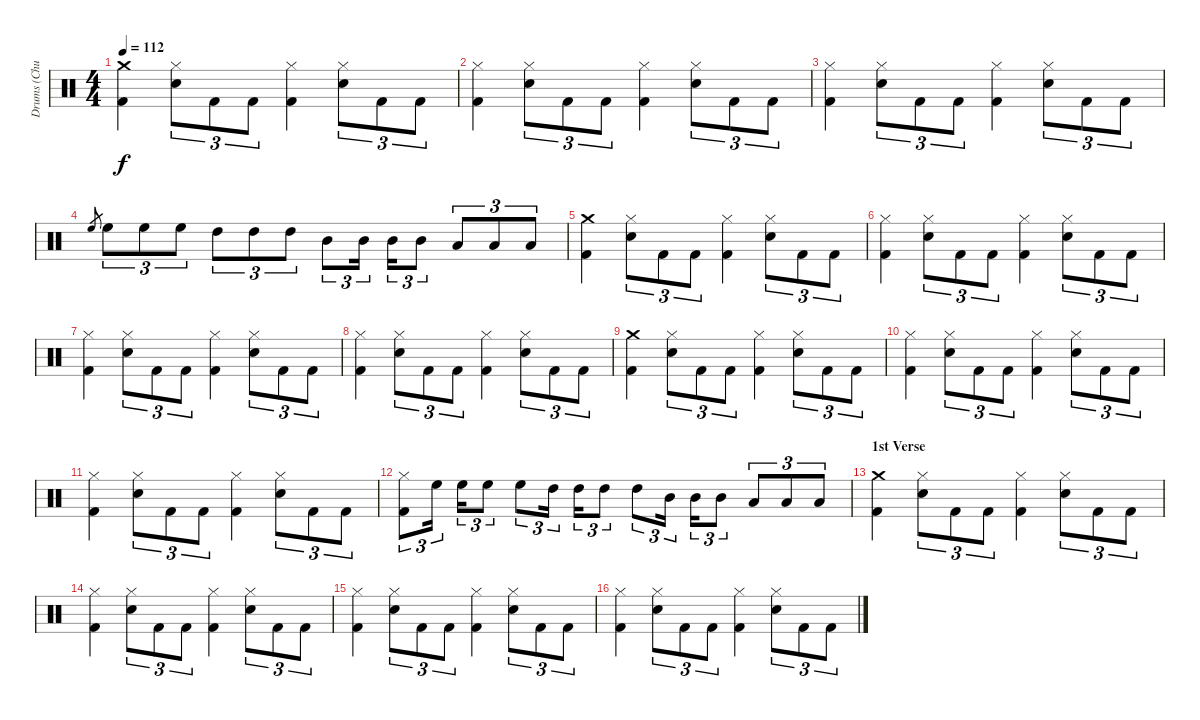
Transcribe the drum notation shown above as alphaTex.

\track ("Drums (Chuck Behler)" "Drums (Chu") {instrument percussion}
\staff {score}
\articulation defaults
\ts (4 4)
\tempo 112
\clef neutral
\ks c
("Crash medium (hit)" "Kick (hit) 2").4{dy f} ("Hi-Hat (closed)" "Snare (hit) 2").8{tu (3 2)} "Kick (hit) 2".8{tu (3 2)} "Kick (hit) 2".8{tu (3 2)} ("Hi-Hat (closed)" "Kick (hit) 2").4 ("Hi-Hat (closed)" "Snare (hit) 2").8{tu (3 2)} "Kick (hit) 2".8{tu (3 2)} "Kick (hit) 2".8{tu (3 2)} |
("Hi-Hat (closed)" "Kick (hit) 2").4 ("Hi-Hat (closed)" "Snare (hit) 2").8{tu (3 2)} "Kick (hit) 2".8{tu (3 2)} "Kick (hit) 2".8{tu (3 2)} ("Hi-Hat (closed)" "Kick (hit) 2").4 ("Hi-Hat (closed)" "Snare (hit) 2").8{tu (3 2)} "Kick (hit) 2".8{tu (3 2)} "Kick (hit) 2".8{tu (3 2)} |
("Hi-Hat (closed)" "Kick (hit) 2").4 ("Hi-Hat (closed)" "Snare (hit) 2").8{tu (3 2)} "Kick (hit) 2".8{tu (3 2)} "Kick (hit) 2".8{tu (3 2)} ("Hi-Hat (closed)" "Kick (hit) 2").4 ("Hi-Hat (closed)" "Snare (hit) 2").8{tu (3 2)} "Kick (hit) 2".8{tu (3 2)} "Kick (hit) 2".8{tu (3 2)} |
"High Floor Tom (hit)".8{gr} "High Floor Tom (hit)".8{tu (3 2)} "High Floor Tom (hit)".8{tu (3 2)} "High Floor Tom (hit)".8{tu (3 2)} "High Tom (hit)".8{tu (3 2)} "High Tom (hit)".8{tu (3 2)} "High Tom (hit)".8{tu (3 2)} "Mid Tom (hit)".8{tu (3 2)} "Mid Tom (hit)".16{tu (3 2)} "Mid Tom (hit)".16{tu (3 2)} "Mid Tom (hit)".8{tu (3 2)} "Low Tom (hit)".8{tu (3 2)} "Low Tom (hit)".8{tu (3 2)} "Low Tom (hit)".8{tu (3 2)} |
("Crash medium (hit)" "Kick (hit) 2").4 ("Hi-Hat (closed)" "Snare (hit) 2").8{tu (3 2)} "Kick (hit) 2".8{tu (3 2)} "Kick (hit) 2".8{tu (3 2)} ("Hi-Hat (closed)" "Kick (hit) 2").4 ("Hi-Hat (closed)" "Snare (hit) 2").8{tu (3 2)} "Kick (hit) 2".8{tu (3 2)} "Kick (hit) 2".8{tu (3 2)} |
("Hi-Hat (closed)" "Kick (hit) 2").4 ("Hi-Hat (closed)" "Snare (hit) 2").8{tu (3 2)} "Kick (hit) 2".8{tu (3 2)} "Kick (hit) 2".8{tu (3 2)} ("Hi-Hat (closed)" "Kick (hit) 2").4 ("Hi-Hat (closed)" "Snare (hit) 2").8{tu (3 2)} "Kick (hit) 2".8{tu (3 2)} "Kick (hit) 2".8{tu (3 2)} |
("Hi-Hat (closed)" "Kick (hit) 2").4 ("Hi-Hat (closed)" "Snare (hit) 2").8{tu (3 2)} "Kick (hit) 2".8{tu (3 2)} "Kick (hit) 2".8{tu (3 2)} ("Hi-Hat (closed)" "Kick (hit) 2").4 ("Hi-Hat (closed)" "Snare (hit) 2").8{tu (3 2)} "Kick (hit) 2".8{tu (3 2)} "Kick (hit) 2".8{tu (3 2)} |
("Hi-Hat (closed)" "Kick (hit) 2").4 ("Hi-Hat (closed)" "Snare (hit) 2").8{tu (3 2)} "Kick (hit) 2".8{tu (3 2)} "Kick (hit) 2".8{tu (3 2)} ("Hi-Hat (closed)" "Kick (hit) 2").4 ("Hi-Hat (closed)" "Snare (hit) 2").8{tu (3 2)} "Kick (hit) 2".8{tu (3 2)} "Kick (hit) 2".8{tu (3 2)} |
("Crash medium (hit)" "Kick (hit) 2").4 ("Hi-Hat (closed)" "Snare (hit) 2").8{tu (3 2)} "Kick (hit) 2".8{tu (3 2)} "Kick (hit) 2".8{tu (3 2)} ("Hi-Hat (closed)" "Kick (hit) 2").4 ("Hi-Hat (closed)" "Snare (hit) 2").8{tu (3 2)} "Kick (hit) 2".8{tu (3 2)} "Kick (hit) 2".8{tu (3 2)} |
("Hi-Hat (closed)" "Kick (hit) 2").4 ("Hi-Hat (closed)" "Snare (hit) 2").8{tu (3 2)} "Kick (hit) 2".8{tu (3 2)} "Kick (hit) 2".8{tu (3 2)} ("Hi-Hat (closed)" "Kick (hit) 2").4 ("Hi-Hat (closed)" "Snare (hit) 2").8{tu (3 2)} "Kick (hit) 2".8{tu (3 2)} "Kick (hit) 2".8{tu (3 2)} |
("Hi-Hat (closed)" "Kick (hit) 2").4 ("Hi-Hat (closed)" "Snare (hit) 2").8{tu (3 2)} "Kick (hit) 2".8{tu (3 2)} "Kick (hit) 2".8{tu (3 2)} ("Hi-Hat (closed)" "Kick (hit) 2").4 ("Hi-Hat (closed)" "Snare (hit) 2").8{tu (3 2)} "Kick (hit) 2".8{tu (3 2)} "Kick (hit) 2".8{tu (3 2)} |
("Hi-Hat (closed)" "Kick (hit) 2").8{tu (3 2)} "High Floor Tom (hit)".16{tu (3 2)} "High Floor Tom (hit)".16{tu (3 2)} "High Floor Tom (hit)".8{tu (3 2)} "High Floor Tom (hit)".8{tu (3 2)} "High Tom (hit)".16{tu (3 2)} "High Tom (hit)".16{tu (3 2)} "High Tom (hit)".8{tu (3 2)} "High Tom (hit)".8{tu (3 2)} "Mid Tom (hit)".16{tu (3 2)} "Mid Tom (hit)".16{tu (3 2)} "Mid Tom (hit)".8{tu (3 2)} "Low Tom (hit)".8{tu (3 2)} "Low Tom (hit)".8{tu (3 2)} "Low Tom (hit)".8{tu (3 2)} |
\section ("" "1st Verse")
("Crash medium (hit)" "Kick (hit) 2").4 ("Hi-Hat (closed)" "Snare (hit) 2").8{tu (3 2)} "Kick (hit) 2".8{tu (3 2)} "Kick (hit) 2".8{tu (3 2)} ("Hi-Hat (closed)" "Kick (hit) 2").4 ("Hi-Hat (closed)" "Snare (hit) 2").8{tu (3 2)} "Kick (hit) 2".8{tu (3 2)} "Kick (hit) 2".8{tu (3 2)} |
("Hi-Hat (closed)" "Kick (hit) 2").4 ("Hi-Hat (closed)" "Snare (hit) 2").8{tu (3 2)} "Kick (hit) 2".8{tu (3 2)} "Kick (hit) 2".8{tu (3 2)} ("Hi-Hat (closed)" "Kick (hit) 2").4 ("Hi-Hat (closed)" "Snare (hit) 2").8{tu (3 2)} "Kick (hit) 2".8{tu (3 2)} "Kick (hit) 2".8{tu (3 2)} |
("Hi-Hat (closed)" "Kick (hit) 2").4 ("Hi-Hat (closed)" "Snare (hit) 2").8{tu (3 2)} "Kick (hit) 2".8{tu (3 2)} "Kick (hit) 2".8{tu (3 2)} ("Hi-Hat (closed)" "Kick (hit) 2").4 ("Hi-Hat (closed)" "Snare (hit) 2").8{tu (3 2)} "Kick (hit) 2".8{tu (3 2)} "Kick (hit) 2".8{tu (3 2)} |
("Hi-Hat (closed)" "Kick (hit) 2").4 ("Hi-Hat (closed)" "Snare (hit) 2").8{tu (3 2)} "Kick (hit) 2".8{tu (3 2)} "Kick (hit) 2".8{tu (3 2)} ("Hi-Hat (closed)" "Kick (hit) 2").4 ("Hi-Hat (closed)" "Snare (hit) 2").8{tu (3 2)} "Kick (hit) 2".8{tu (3 2)} "Kick (hit) 2".8{tu (3 2)}
